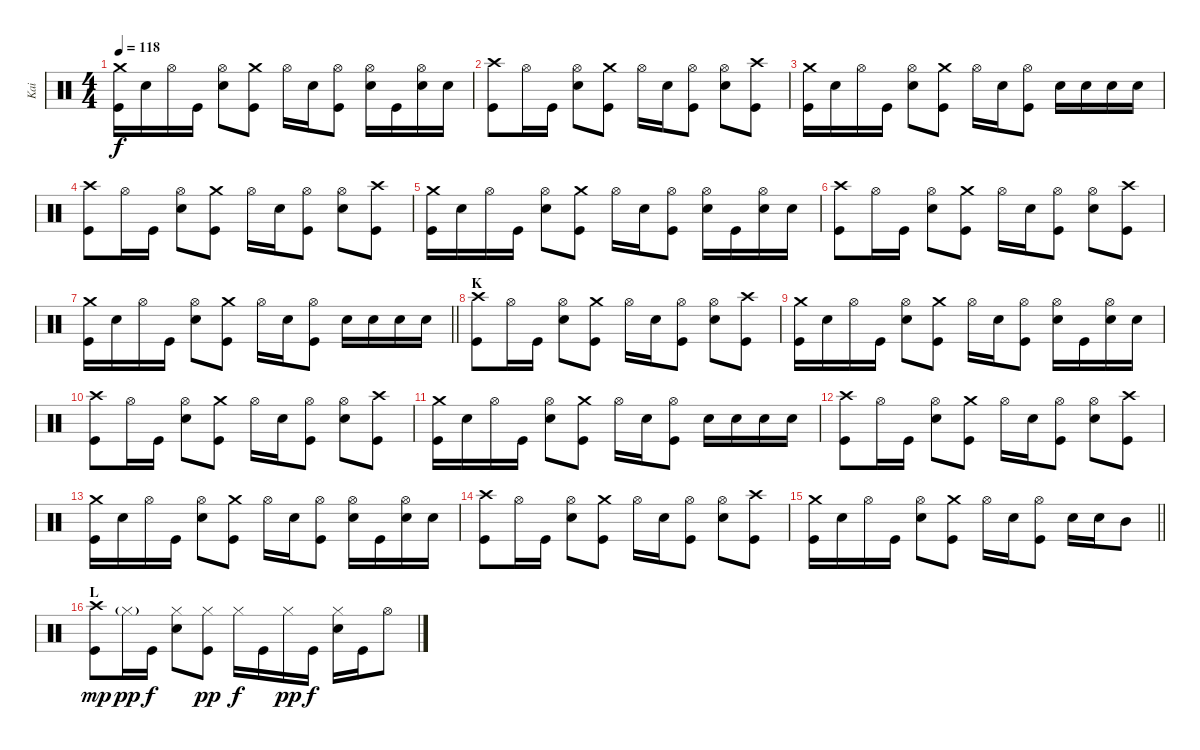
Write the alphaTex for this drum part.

\track ("Kai" "Kai") {instrument percussion}
\staff {score}
\articulation defaults
\ts (4 4)
\tempo 118
\clef neutral
\ks c
("Kick (hit)" "Crash medium (hit)").16{dy f} "Snare (hit) 2".16 "Hi-Hat (open)".16 "Kick (hit)".16 ("Snare (hit) 2" "Hi-Hat (open)").8 ("Kick (hit)" "Crash medium (hit)").8 "Hi-Hat (open)".16 "Snare (hit) 2".16 ("Kick (hit)" "Hi-Hat (open)").8 ("Snare (hit) 2" "Hi-Hat (open)").16 "Kick (hit)".16 ("Snare (hit) 2" "Hi-Hat (open)").16 "Snare (hit) 2".16 |
("Kick (hit)" "Crash high (hit)").8 "Hi-Hat (open)".16 "Kick (hit)".16 ("Hi-Hat (open)" "Snare (hit) 2").8 ("Crash medium (hit)" "Kick (hit)").8 "Hi-Hat (open)".16 "Snare (hit) 2".16 ("Kick (hit)" "Hi-Hat (open)").8 ("Hi-Hat (open)" "Snare (hit) 2").8 ("Kick (hit)" "Crash high (hit)").8 |
("Kick (hit)" "Crash medium (hit)").16 "Snare (hit) 2".16 "Hi-Hat (open)".16 "Kick (hit)".16 ("Snare (hit) 2" "Hi-Hat (open)").8 ("Kick (hit)" "Crash medium (hit)").8 "Hi-Hat (open)".16 "Snare (hit) 2".16 ("Kick (hit)" "Hi-Hat (open)").8 "Snare (hit) 2".16 "Snare (hit) 2".16 "Snare (hit) 2".16 "Snare (hit) 2".16 |
("Kick (hit)" "Crash high (hit)").8 "Hi-Hat (open)".16 "Kick (hit)".16 ("Hi-Hat (open)" "Snare (hit) 2").8 ("Crash medium (hit)" "Kick (hit)").8 "Hi-Hat (open)".16 "Snare (hit) 2".16 ("Kick (hit)" "Hi-Hat (open)").8 ("Hi-Hat (open)" "Snare (hit) 2").8 ("Kick (hit)" "Crash high (hit)").8 |
("Kick (hit)" "Crash medium (hit)").16 "Snare (hit) 2".16 "Hi-Hat (open)".16 "Kick (hit)".16 ("Snare (hit) 2" "Hi-Hat (open)").8 ("Kick (hit)" "Crash medium (hit)").8 "Hi-Hat (open)".16 "Snare (hit) 2".16 ("Kick (hit)" "Hi-Hat (open)").8 ("Snare (hit) 2" "Hi-Hat (open)").16 "Kick (hit)".16 ("Snare (hit) 2" "Hi-Hat (open)").16 "Snare (hit) 2".16 |
("Kick (hit)" "Crash high (hit)").8 "Hi-Hat (open)".16 "Kick (hit)".16 ("Hi-Hat (open)" "Snare (hit) 2").8 ("Crash medium (hit)" "Kick (hit)").8 "Hi-Hat (open)".16 "Snare (hit) 2".16 ("Kick (hit)" "Hi-Hat (open)").8 ("Hi-Hat (open)" "Snare (hit) 2").8 ("Kick (hit)" "Crash high (hit)").8 |
\barLineRight lightlight
("Kick (hit)" "Crash medium (hit)").16 "Snare (hit) 2".16 "Hi-Hat (open)".16 "Kick (hit)".16 ("Snare (hit) 2" "Hi-Hat (open)").8 ("Kick (hit)" "Crash medium (hit)").8 "Hi-Hat (open)".16 "Snare (hit) 2".16 ("Kick (hit)" "Hi-Hat (open)").8 "Snare (hit) 2".16 "Snare (hit) 2".16 "Snare (hit) 2".16 "Snare (hit) 2".16 |
\section ("" "K")
("Kick (hit)" "Crash high (hit)").8 "Hi-Hat (open)".16 "Kick (hit)".16 ("Hi-Hat (open)" "Snare (hit) 2").8 ("Crash medium (hit)" "Kick (hit)").8 "Hi-Hat (open)".16 "Snare (hit) 2".16 ("Kick (hit)" "Hi-Hat (open)").8 ("Hi-Hat (open)" "Snare (hit) 2").8 ("Kick (hit)" "Crash high (hit)").8 |
("Kick (hit)" "Crash medium (hit)").16 "Snare (hit) 2".16 "Hi-Hat (open)".16 "Kick (hit)".16 ("Snare (hit) 2" "Hi-Hat (open)").8 ("Kick (hit)" "Crash medium (hit)").8 "Hi-Hat (open)".16 "Snare (hit) 2".16 ("Kick (hit)" "Hi-Hat (open)").8 ("Snare (hit) 2" "Hi-Hat (open)").16 "Kick (hit)".16 ("Snare (hit) 2" "Hi-Hat (open)").16 "Snare (hit) 2".16 |
("Kick (hit)" "Crash high (hit)").8 "Hi-Hat (open)".16 "Kick (hit)".16 ("Hi-Hat (open)" "Snare (hit) 2").8 ("Crash medium (hit)" "Kick (hit)").8 "Hi-Hat (open)".16 "Snare (hit) 2".16 ("Kick (hit)" "Hi-Hat (open)").8 ("Hi-Hat (open)" "Snare (hit) 2").8 ("Kick (hit)" "Crash high (hit)").8 |
("Kick (hit)" "Crash medium (hit)").16 "Snare (hit) 2".16 "Hi-Hat (open)".16 "Kick (hit)".16 ("Snare (hit) 2" "Hi-Hat (open)").8 ("Kick (hit)" "Crash medium (hit)").8 "Hi-Hat (open)".16 "Snare (hit) 2".16 ("Kick (hit)" "Hi-Hat (open)").8 "Snare (hit) 2".16 "Snare (hit) 2".16 "Snare (hit) 2".16 "Snare (hit) 2".16 |
("Kick (hit)" "Crash high (hit)").8 "Hi-Hat (open)".16 "Kick (hit)".16 ("Hi-Hat (open)" "Snare (hit) 2").8 ("Crash medium (hit)" "Kick (hit)").8 "Hi-Hat (open)".16 "Snare (hit) 2".16 ("Kick (hit)" "Hi-Hat (open)").8 ("Hi-Hat (open)" "Snare (hit) 2").8 ("Kick (hit)" "Crash high (hit)").8 |
("Kick (hit)" "Crash medium (hit)").16 "Snare (hit) 2".16 "Hi-Hat (open)".16 "Kick (hit)".16 ("Snare (hit) 2" "Hi-Hat (open)").8 ("Kick (hit)" "Crash medium (hit)").8 "Hi-Hat (open)".16 "Snare (hit) 2".16 ("Kick (hit)" "Hi-Hat (open)").8 ("Snare (hit) 2" "Hi-Hat (open)").16 "Kick (hit)".16 ("Snare (hit) 2" "Hi-Hat (open)").16 "Snare (hit) 2".16 |
("Kick (hit)" "Crash high (hit)").8 "Hi-Hat (open)".16 "Kick (hit)".16 ("Hi-Hat (open)" "Snare (hit) 2").8 ("Crash medium (hit)" "Kick (hit)").8 "Hi-Hat (open)".16 "Snare (hit) 2".16 ("Kick (hit)" "Hi-Hat (open)").8 ("Hi-Hat (open)" "Snare (hit) 2").8 ("Kick (hit)" "Crash high (hit)").8 |
\barLineRight lightlight
("Kick (hit)" "Crash medium (hit)").16 "Snare (hit) 2".16 "Hi-Hat (open)".16 "Kick (hit)".16 ("Snare (hit) 2" "Hi-Hat (open)").8 ("Kick (hit)" "Crash medium (hit)").8 "Hi-Hat (open)".16 "Snare (hit) 2".16 ("Kick (hit)" "Hi-Hat (open)").8 "Snare (hit) 2".16 "Snare (hit) 2".16 "Mid Tom (hit)".8 |
\section ("" "L")
("Kick (hit)" "Crash high (hit)").8{dy mp} "Hi-Hat (closed)"{g}.16{dy pp} "Kick (hit)".16{dy f} ("Hi-Hat (closed)" "Snare (hit) 2").8 ("Hi-Hat (closed)" "Kick (hit)").8{dy pp} "Hi-Hat (closed)".16{dy f} "Kick (hit)".16 "Hi-Hat (closed)".16{dy pp} "Kick (hit)".16{dy f} ("Hi-Hat (closed)" "Snare (hit) 2").16 "Kick (hit)".16 "Hi-Hat (open)".8
